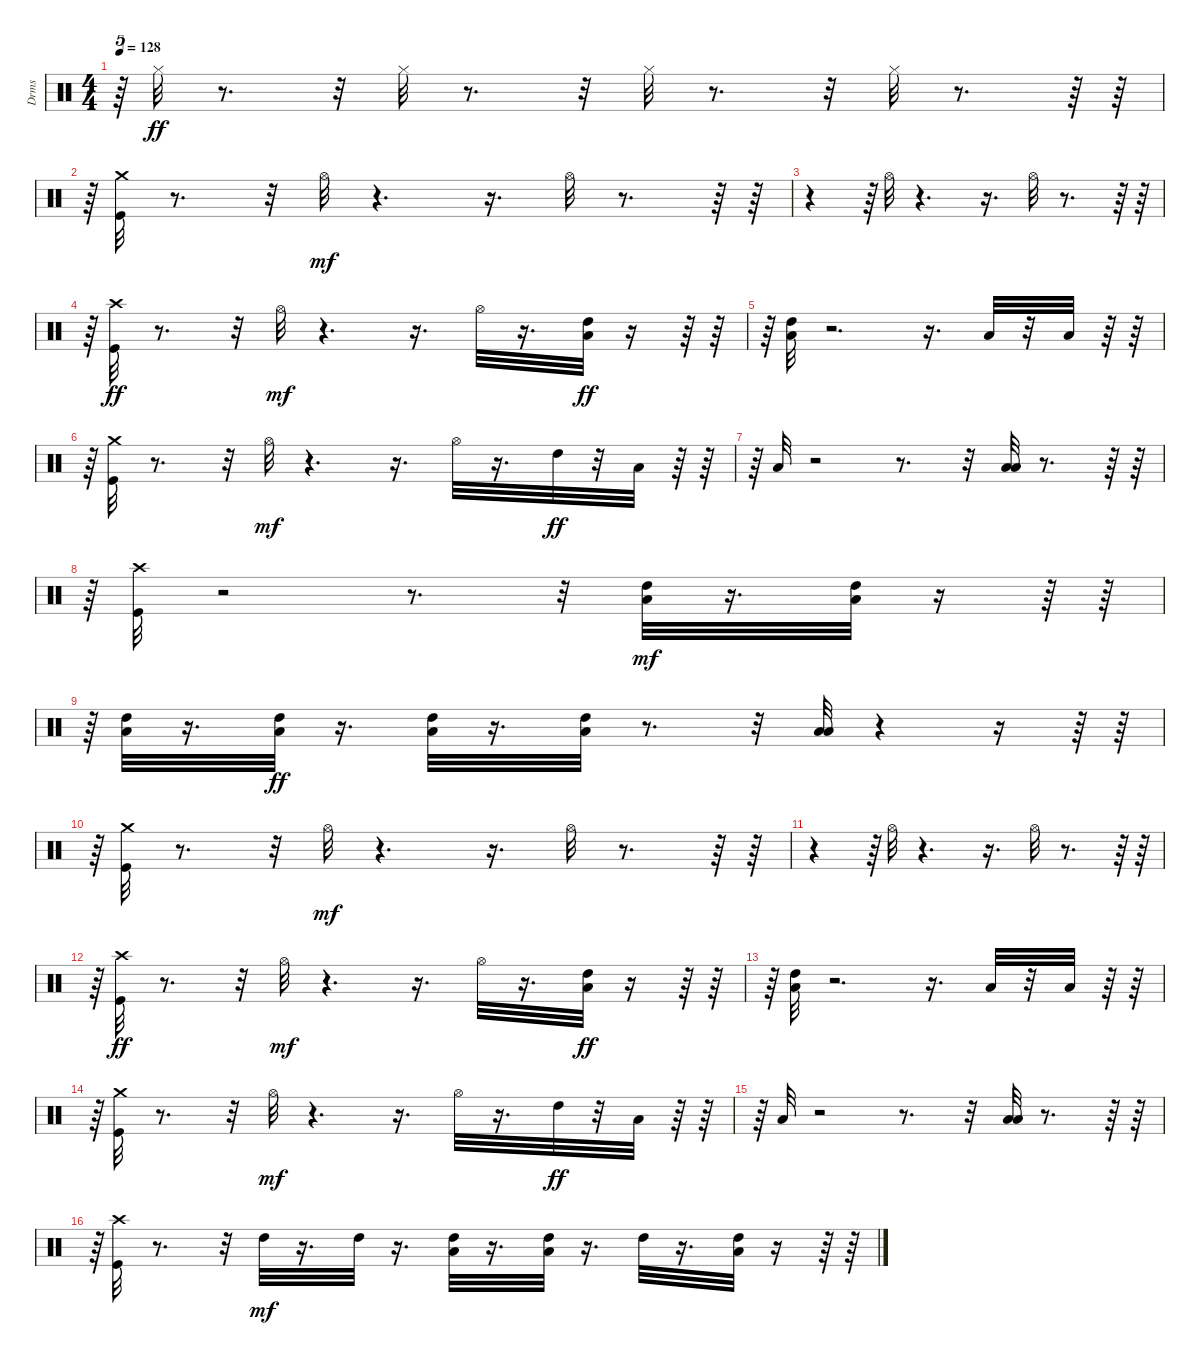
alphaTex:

\track ("Drms" "Drms") {instrument percussion}
\staff {score}
\articulation defaults
\ts (4 4)
\tempo 128
\clef neutral
\ks c
r.64{tu (5 4) dy ff} "Hi-Hat (closed)".32 r.8{d} r.32 "Hi-Hat (closed)".32 r.8{d} r.32 "Hi-Hat (closed)".32 r.8{d} r.32 "Hi-Hat (closed)".32 r.8{d} r.64 r.64 |
r.64{tu (5 4)} ("Kick (hit)" "Crash medium (hit)").32 r.8{d} r.32 "Hi-Hat (open)".32{dy mf} r.4{d} r.16{d} "Hi-Hat (open)".32 r.8{d} r.64 r.64 |
r.4 r.64{tu (5 4)} "Hi-Hat (open)".32 r.4{d} r.16{d} "Hi-Hat (open)".32 r.8{d} r.64 r.64 |
r.64{tu (5 4)} ("Crash high (hit)" "Kick (hit)").32{dy ff} r.8{d} r.32 "Hi-Hat (open)".32{dy mf} r.4{d} r.16{d} "Hi-Hat (open)".32 r.16{d} ("Low Tom (hit)" "High Tom (hit)").32{dy ff} r.16 r.64 r.64 |
r.64{tu (5 4)} ("Low Tom (hit)" "High Tom (hit)").32 r.2{d} r.16{d} "Low Tom (hit)".32 r.32 "Low Floor Tom (hit)".32 r.64 r.64 |
r.64{tu (5 4)} ("Kick (hit)" "Crash medium (hit)").32 r.8{d} r.32 "Hi-Hat (open)".32{dy mf} r.4{d} r.16{d} "Hi-Hat (open)".32 r.16{d} "High Tom (hit)".32{dy ff} r.32 "Low Tom (hit)".32 r.64 r.64 |
r.64{tu (5 4)} "Low Floor Tom (hit)".32 r.2 r.8{d} r.32 ("Low Floor Tom (hit)" "Low Tom (hit)").32 r.8{d} r.64 r.64 |
r.64{tu (5 4)} ("Crash high (hit)" "Kick (hit)").32 r.2 r.8{d} r.32 ("Low Tom (hit)" "High Tom (hit)").32{dy mf} r.16{d} ("Low Tom (hit)" "High Tom (hit)").32 r.16 r.64 r.64 |
r.64{tu (5 4)} ("Low Tom (hit)" "High Tom (hit)").32 r.16{d} ("Low Tom (hit)" "High Tom (hit)").32{dy ff} r.16{d} ("Low Tom (hit)" "High Tom (hit)").32 r.16{d} ("High Tom (hit)" "Low Tom (hit)").32 r.8{d} r.32 ("Low Floor Tom (hit)" "Low Tom (hit)").32 r.4 r.16 r.64 r.64 |
r.64{tu (5 4)} ("Kick (hit)" "Crash medium (hit)").32 r.8{d} r.32 "Hi-Hat (open)".32{dy mf} r.4{d} r.16{d} "Hi-Hat (open)".32 r.8{d} r.64 r.64 |
r.4 r.64{tu (5 4)} "Hi-Hat (open)".32 r.4{d} r.16{d} "Hi-Hat (open)".32 r.8{d} r.64 r.64 |
r.64{tu (5 4)} ("Crash high (hit)" "Kick (hit)").32{dy ff} r.8{d} r.32 "Hi-Hat (open)".32{dy mf} r.4{d} r.16{d} "Hi-Hat (open)".32 r.16{d} ("Low Tom (hit)" "High Tom (hit)").32{dy ff} r.16 r.64 r.64 |
r.64{tu (5 4)} ("Low Tom (hit)" "High Tom (hit)").32 r.2{d} r.16{d} "Low Tom (hit)".32 r.32 "Low Floor Tom (hit)".32 r.64 r.64 |
r.64{tu (5 4)} ("Kick (hit)" "Crash medium (hit)").32 r.8{d} r.32 "Hi-Hat (open)".32{dy mf} r.4{d} r.16{d} "Hi-Hat (open)".32 r.16{d} "High Tom (hit)".32{dy ff} r.32 "Low Tom (hit)".32 r.64 r.64 |
r.64{tu (5 4)} "Low Floor Tom (hit)".32 r.2 r.8{d} r.32 ("Low Floor Tom (hit)" "Low Tom (hit)").32 r.8{d} r.64 r.64 |
r.64{tu (5 4)} ("Crash high (hit)" "Kick (hit)").32 r.8{d} r.32 "High Tom (hit)".32{dy mf} r.16{d} "High Tom (hit)".32 r.16{d} ("Low Tom (hit)" "High Tom (hit)").32 r.16{d} ("Low Tom (hit)" "High Tom (hit)").32 r.16{d} "High Tom (hit)".32 r.16{d} ("High Tom (hit)" "Low Tom (hit)").32 r.16 r.64 r.64
